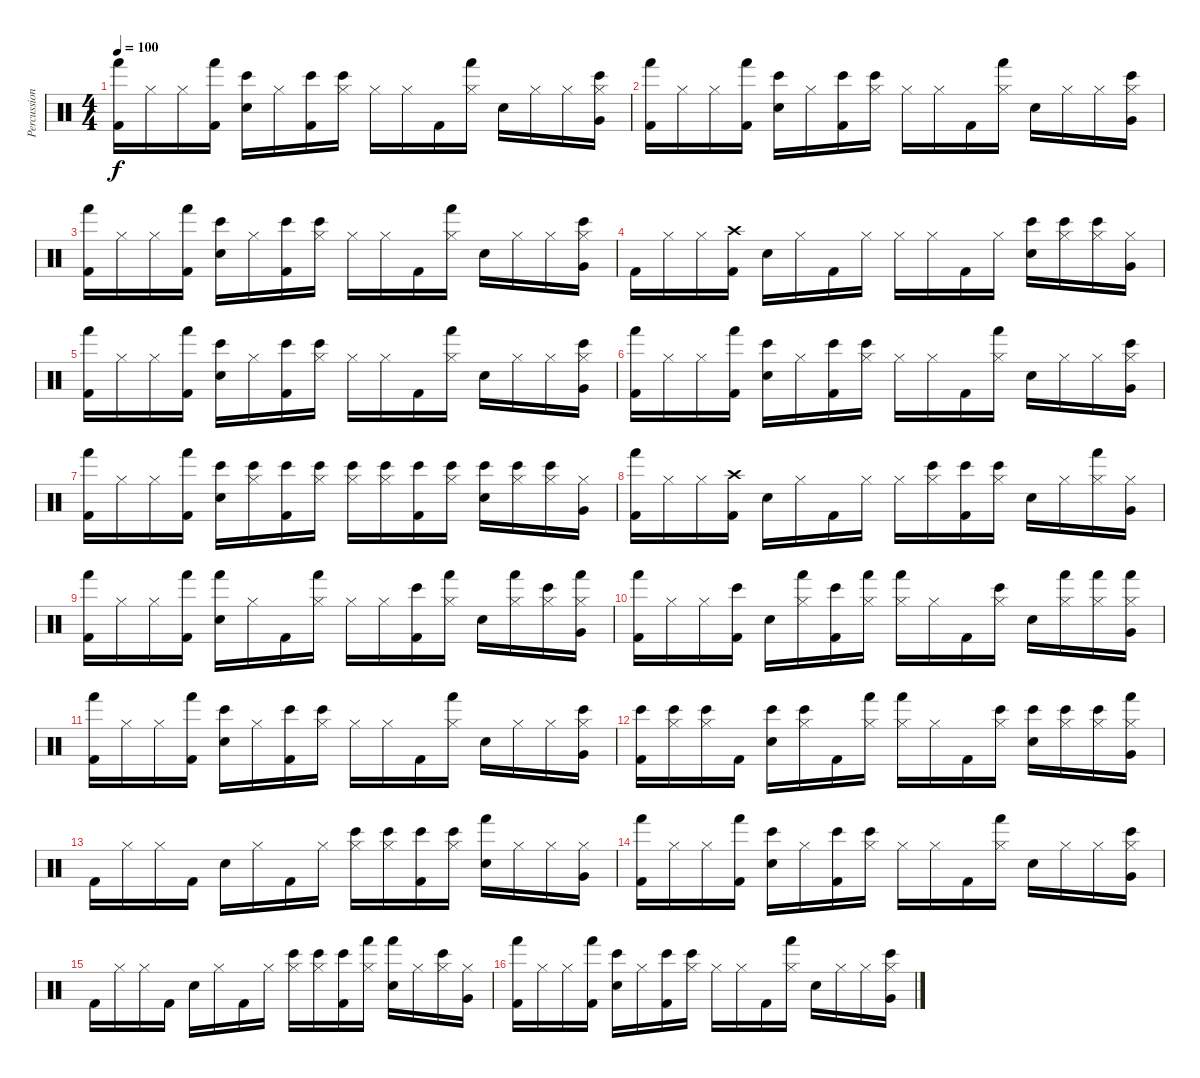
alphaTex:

\track ("Percussions" "Percussion") {instrument percussion}
\staff {score}
\articulation defaults
\ts (4 4)
\tempo 100
\clef neutral
\ks c
("Kick (hit) 2" "Hand (hit)").16{dy f} "Hi-Hat (closed)".16 "Hi-Hat (closed)".16 ("Kick (hit) 2" "Hand (hit)").16 ("Electric Snare (hit)" "Bongo High (hit)").16 "Hi-Hat (closed)".16 ("Kick (hit) 2" "Bongo High (hit)").16 ("Hi-Hat (closed)" "Bongo High (hit)").16 "Hi-Hat (closed)".16 "Hi-Hat (closed)".16 "Kick (hit) 2".16 ("Hi-Hat (closed)" "Hand (hit)").16 "Electric Snare (hit)".16 "Hi-Hat (closed)".16 "Hi-Hat (closed)".16 ("Hi-Hat (closed)" "Bongo High (hit)" "Very Low Tom (hit)").16 |
("Kick (hit) 2" "Hand (hit)").16 "Hi-Hat (closed)".16 "Hi-Hat (closed)".16 ("Kick (hit) 2" "Hand (hit)").16 ("Electric Snare (hit)" "Bongo High (hit)").16 "Hi-Hat (closed)".16 ("Kick (hit) 2" "Bongo High (hit)").16 ("Hi-Hat (closed)" "Bongo High (hit)").16 "Hi-Hat (closed)".16 "Hi-Hat (closed)".16 "Kick (hit) 2".16 ("Hi-Hat (closed)" "Hand (hit)").16 "Electric Snare (hit)".16 "Hi-Hat (closed)".16 "Hi-Hat (closed)".16 ("Hi-Hat (closed)" "Bongo High (hit)" "Very Low Tom (hit)").16 |
("Kick (hit) 2" "Hand (hit)").16 "Hi-Hat (closed)".16 "Hi-Hat (closed)".16 ("Kick (hit) 2" "Hand (hit)").16 ("Electric Snare (hit)" "Bongo High (hit)").16 "Hi-Hat (closed)".16 ("Kick (hit) 2" "Bongo High (hit)").16 ("Hi-Hat (closed)" "Bongo High (hit)").16 "Hi-Hat (closed)".16 "Hi-Hat (closed)".16 "Kick (hit) 2".16 ("Hi-Hat (closed)" "Hand (hit)").16 "Electric Snare (hit)".16 "Hi-Hat (closed)".16 "Hi-Hat (closed)".16 ("Hi-Hat (closed)" "Bongo High (hit)" "Very Low Tom (hit)").16 |
"Kick (hit) 2".16 "Hi-Hat (closed)".16 "Hi-Hat (closed)".16 ("Kick (hit) 2" "Crash high (hit)").16 "Electric Snare (hit)".16 "Hi-Hat (closed)".16 "Kick (hit) 2".16 "Hi-Hat (closed)".16 "Hi-Hat (closed)".16 "Hi-Hat (closed)".16 "Kick (hit) 2".16 "Hi-Hat (closed)".16 ("Electric Snare (hit)" "Bongo High (hit)").16 ("Hi-Hat (closed)" "Bongo High (hit)").16 ("Hi-Hat (closed)" "Bongo High (hit)").16 ("Hi-Hat (closed)" "Very Low Tom (hit)").16 |
("Kick (hit) 2" "Hand (hit)").16 "Hi-Hat (closed)".16 "Hi-Hat (closed)".16 ("Kick (hit) 2" "Hand (hit)").16 ("Electric Snare (hit)" "Bongo High (hit)").16 "Hi-Hat (closed)".16 ("Kick (hit) 2" "Bongo High (hit)").16 ("Hi-Hat (closed)" "Bongo High (hit)").16 "Hi-Hat (closed)".16 "Hi-Hat (closed)".16 "Kick (hit) 2".16 ("Hi-Hat (closed)" "Hand (hit)").16 "Electric Snare (hit)".16 "Hi-Hat (closed)".16 "Hi-Hat (closed)".16 ("Hi-Hat (closed)" "Bongo High (hit)" "Very Low Tom (hit)").16 |
("Kick (hit) 2" "Hand (hit)").16 "Hi-Hat (closed)".16 "Hi-Hat (closed)".16 ("Kick (hit) 2" "Hand (hit)").16 ("Electric Snare (hit)" "Bongo High (hit)").16 "Hi-Hat (closed)".16 ("Kick (hit) 2" "Bongo High (hit)").16 ("Hi-Hat (closed)" "Bongo High (hit)").16 "Hi-Hat (closed)".16 "Hi-Hat (closed)".16 "Kick (hit) 2".16 ("Hi-Hat (closed)" "Hand (hit)").16 "Electric Snare (hit)".16 "Hi-Hat (closed)".16 "Hi-Hat (closed)".16 ("Hi-Hat (closed)" "Bongo High (hit)" "Very Low Tom (hit)").16 |
("Kick (hit) 2" "Hand (hit)").16 "Hi-Hat (closed)".16 "Hi-Hat (closed)".16 ("Kick (hit) 2" "Hand (hit)").16 ("Electric Snare (hit)" "Bongo High (hit)").16 ("Hi-Hat (closed)" "Bongo High (hit)").16 ("Kick (hit) 2" "Bongo High (hit)").16 ("Hi-Hat (closed)" "Bongo High (hit)").16 ("Hi-Hat (closed)" "Bongo High (hit)").16 ("Hi-Hat (closed)" "Bongo High (hit)").16 ("Kick (hit) 2" "Bongo High (hit)").16 ("Hi-Hat (closed)" "Bongo High (hit)").16 ("Electric Snare (hit)" "Bongo High (hit)").16 ("Hi-Hat (closed)" "Bongo High (hit)").16 ("Hi-Hat (closed)" "Bongo High (hit)").16 ("Hi-Hat (closed)" "Very Low Tom (hit)").16 |
("Kick (hit) 2" "Hand (hit)").16 "Hi-Hat (closed)".16 "Hi-Hat (closed)".16 ("Kick (hit) 2" "Crash high (hit)").16 "Electric Snare (hit)".16 "Hi-Hat (closed)".16 "Kick (hit) 2".16 "Hi-Hat (closed)".16 "Hi-Hat (closed)".16 ("Hi-Hat (closed)" "Bongo High (hit)").16 ("Kick (hit) 2" "Bongo High (hit)").16 ("Hi-Hat (closed)" "Bongo High (hit)").16 "Electric Snare (hit)".16 "Hi-Hat (closed)".16 ("Hi-Hat (closed)" "Hand (hit)").16 ("Hi-Hat (closed)" "Very Low Tom (hit)").16 |
("Kick (hit) 2" "Hand (hit)").16 "Hi-Hat (closed)".16 "Hi-Hat (closed)".16 ("Kick (hit) 2" "Hand (hit)").16 ("Electric Snare (hit)" "Hand (hit)").16 "Hi-Hat (closed)".16 "Kick (hit) 2".16 ("Hi-Hat (closed)" "Hand (hit)").16 "Hi-Hat (closed)".16 "Hi-Hat (closed)".16 ("Kick (hit) 2" "Bongo High (hit)").16 ("Hi-Hat (closed)" "Hand (hit)").16 "Electric Snare (hit)".16 ("Hi-Hat (closed)" "Hand (hit)").16 ("Hi-Hat (closed)" "Bongo High (hit)").16 ("Hi-Hat (closed)" "Hand (hit)" "Very Low Tom (hit)").16 |
("Kick (hit) 2" "Hand (hit)").16 "Hi-Hat (closed)".16 "Hi-Hat (closed)".16 ("Kick (hit) 2" "Bongo High (hit)").16 "Electric Snare (hit)".16 ("Hi-Hat (closed)" "Hand (hit)").16 ("Kick (hit) 2" "Bongo High (hit)").16 ("Hi-Hat (closed)" "Hand (hit)").16 ("Hi-Hat (closed)" "Hand (hit)").16 "Hi-Hat (closed)".16 "Kick (hit) 2".16 ("Hi-Hat (closed)" "Bongo High (hit)").16 "Electric Snare (hit)".16 ("Hi-Hat (closed)" "Hand (hit)").16 ("Hi-Hat (closed)" "Hand (hit)").16 ("Hi-Hat (closed)" "Hand (hit)" "Very Low Tom (hit)").16 |
("Kick (hit) 2" "Hand (hit)").16 "Hi-Hat (closed)".16 "Hi-Hat (closed)".16 ("Kick (hit) 2" "Hand (hit)").16 ("Electric Snare (hit)" "Bongo High (hit)").16 "Hi-Hat (closed)".16 ("Kick (hit) 2" "Bongo High (hit)").16 ("Hi-Hat (closed)" "Bongo High (hit)").16 "Hi-Hat (closed)".16 "Hi-Hat (closed)".16 "Kick (hit) 2".16 ("Hi-Hat (closed)" "Hand (hit)").16 "Electric Snare (hit)".16 "Hi-Hat (closed)".16 "Hi-Hat (closed)".16 ("Hi-Hat (closed)" "Bongo High (hit)" "Very Low Tom (hit)").16 |
("Kick (hit) 2" "Bongo High (hit)").16 ("Hi-Hat (closed)" "Bongo High (hit)").16 ("Hi-Hat (closed)" "Bongo High (hit)").16 "Kick (hit) 2".16 ("Electric Snare (hit)" "Bongo High (hit)").16 ("Hi-Hat (closed)" "Bongo High (hit)").16 "Kick (hit) 2".16 ("Hi-Hat (closed)" "Hand (hit)").16 ("Hi-Hat (closed)" "Hand (hit)").16 "Hi-Hat (closed)".16 "Kick (hit) 2".16 ("Hi-Hat (closed)" "Bongo High (hit)").16 ("Electric Snare (hit)" "Bongo High (hit)").16 ("Hi-Hat (closed)" "Bongo High (hit)").16 ("Hi-Hat (closed)" "Bongo High (hit)").16 ("Hi-Hat (closed)" "Hand (hit)" "Very Low Tom (hit)").16 |
"Kick (hit) 2".16 "Hi-Hat (closed)".16 "Hi-Hat (closed)".16 "Kick (hit) 2".16 "Electric Snare (hit)".16 "Hi-Hat (closed)".16 "Kick (hit) 2".16 "Hi-Hat (closed)".16 ("Hi-Hat (closed)" "Bongo High (hit)").16 ("Hi-Hat (closed)" "Bongo High (hit)").16 ("Kick (hit) 2" "Bongo High (hit)").16 ("Hi-Hat (closed)" "Bongo High (hit)").16 ("Electric Snare (hit)" "Hand (hit)").16 "Hi-Hat (closed)".16 "Hi-Hat (closed)".16 ("Hi-Hat (closed)" "Very Low Tom (hit)").16 |
("Kick (hit) 2" "Hand (hit)").16 "Hi-Hat (closed)".16 "Hi-Hat (closed)".16 ("Kick (hit) 2" "Hand (hit)").16 ("Electric Snare (hit)" "Bongo High (hit)").16 "Hi-Hat (closed)".16 ("Kick (hit) 2" "Bongo High (hit)").16 ("Hi-Hat (closed)" "Bongo High (hit)").16 "Hi-Hat (closed)".16 "Hi-Hat (closed)".16 "Kick (hit) 2".16 ("Hi-Hat (closed)" "Hand (hit)").16 "Electric Snare (hit)".16 "Hi-Hat (closed)".16 "Hi-Hat (closed)".16 ("Hi-Hat (closed)" "Bongo High (hit)" "Very Low Tom (hit)").16 |
"Kick (hit) 2".16 "Hi-Hat (closed)".16 "Hi-Hat (closed)".16 "Kick (hit) 2".16 "Electric Snare (hit)".16 "Hi-Hat (closed)".16 "Kick (hit) 2".16 "Hi-Hat (closed)".16 ("Hi-Hat (closed)" "Bongo High (hit)").16 ("Hi-Hat (closed)" "Bongo High (hit)").16 ("Kick (hit) 2" "Bongo High (hit)").16 ("Hi-Hat (closed)" "Hand (hit)").16 ("Electric Snare (hit)" "Hand (hit)").16 "Hi-Hat (closed)".16 ("Hi-Hat (closed)" "Bongo High (hit)").16 ("Hi-Hat (closed)" "Very Low Tom (hit)").16 |
("Kick (hit) 2" "Hand (hit)").16 "Hi-Hat (closed)".16 "Hi-Hat (closed)".16 ("Kick (hit) 2" "Hand (hit)").16 ("Electric Snare (hit)" "Bongo High (hit)").16 "Hi-Hat (closed)".16 ("Kick (hit) 2" "Bongo High (hit)").16 ("Hi-Hat (closed)" "Bongo High (hit)").16 "Hi-Hat (closed)".16 "Hi-Hat (closed)".16 "Kick (hit) 2".16 ("Hi-Hat (closed)" "Hand (hit)").16 "Electric Snare (hit)".16 "Hi-Hat (closed)".16 "Hi-Hat (closed)".16 ("Hi-Hat (closed)" "Bongo High (hit)" "Very Low Tom (hit)").16
